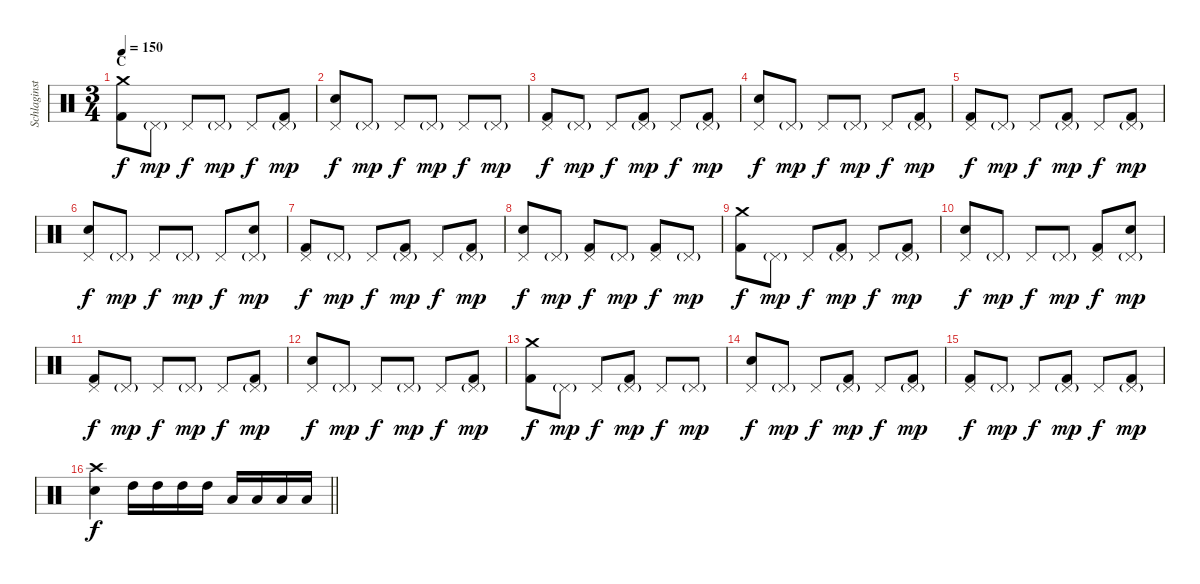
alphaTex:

\track ("Schlaginstrumente - Auswahl" "Schlaginst") {instrument percussion}
\staff {score}
\articulation defaults
\ts (3 4)
\section ("" "C")
\tempo 150
\clef neutral
\ks c
("Crash medium (hit)" "Kick (hit) 2").8{dy f} "Pedal Hi-Hat (hit)"{g}.8{dy mp} "Pedal Hi-Hat (hit)".8{dy f} "Pedal Hi-Hat (hit)"{g}.8{dy mp} "Pedal Hi-Hat (hit)".8{dy f} ("Pedal Hi-Hat (hit)"{g} "Kick (hit) 2").8{dy mp} |
("Pedal Hi-Hat (hit)" "Electric Snare (hit)").8{dy f} "Pedal Hi-Hat (hit)"{g}.8{dy mp} "Pedal Hi-Hat (hit)".8{dy f} "Pedal Hi-Hat (hit)"{g}.8{dy mp} "Pedal Hi-Hat (hit)".8{dy f} "Pedal Hi-Hat (hit)"{g}.8{dy mp} |
("Pedal Hi-Hat (hit)" "Kick (hit) 2").8{dy f} "Pedal Hi-Hat (hit)"{g}.8{dy mp} "Pedal Hi-Hat (hit)".8{dy f} ("Pedal Hi-Hat (hit)"{g} "Kick (hit) 2").8{dy mp} "Pedal Hi-Hat (hit)".8{dy f} ("Pedal Hi-Hat (hit)"{g} "Kick (hit) 2").8{dy mp} |
("Pedal Hi-Hat (hit)" "Electric Snare (hit)").8{dy f} "Pedal Hi-Hat (hit)"{g}.8{dy mp} "Pedal Hi-Hat (hit)".8{dy f} "Pedal Hi-Hat (hit)"{g}.8{dy mp} "Pedal Hi-Hat (hit)".8{dy f} ("Pedal Hi-Hat (hit)"{g} "Kick (hit) 2").8{dy mp} |
("Pedal Hi-Hat (hit)" "Kick (hit) 2").8{dy f} "Pedal Hi-Hat (hit)"{g}.8{dy mp} "Pedal Hi-Hat (hit)".8{dy f} ("Pedal Hi-Hat (hit)"{g} "Kick (hit) 2").8{dy mp} "Pedal Hi-Hat (hit)".8{dy f} ("Pedal Hi-Hat (hit)"{g} "Kick (hit) 2").8{dy mp} |
("Pedal Hi-Hat (hit)" "Electric Snare (hit)").8{dy f} "Pedal Hi-Hat (hit)"{g}.8{dy mp} "Pedal Hi-Hat (hit)".8{dy f} "Pedal Hi-Hat (hit)"{g}.8{dy mp} "Pedal Hi-Hat (hit)".8{dy f} ("Pedal Hi-Hat (hit)"{g} "Electric Snare (hit)").8{dy mp} |
("Pedal Hi-Hat (hit)" "Kick (hit) 2").8{dy f} "Pedal Hi-Hat (hit)"{g}.8{dy mp} "Pedal Hi-Hat (hit)".8{dy f} ("Pedal Hi-Hat (hit)"{g} "Kick (hit) 2").8{dy mp} "Pedal Hi-Hat (hit)".8{dy f} ("Pedal Hi-Hat (hit)"{g} "Kick (hit) 2").8{dy mp} |
("Pedal Hi-Hat (hit)" "Electric Snare (hit)").8{dy f} "Pedal Hi-Hat (hit)"{g}.8{dy mp} ("Pedal Hi-Hat (hit)" "Kick (hit) 2").8{dy f} "Pedal Hi-Hat (hit)"{g}.8{dy mp} ("Pedal Hi-Hat (hit)" "Kick (hit) 2").8{dy f} "Pedal Hi-Hat (hit)"{g}.8{dy mp} |
("Crash medium (hit)" "Kick (hit) 2").8{dy f} "Pedal Hi-Hat (hit)"{g}.8{dy mp} "Pedal Hi-Hat (hit)".8{dy f} ("Pedal Hi-Hat (hit)"{g} "Kick (hit) 2").8{dy mp} "Pedal Hi-Hat (hit)".8{dy f} ("Pedal Hi-Hat (hit)"{g} "Kick (hit) 2").8{dy mp} |
("Pedal Hi-Hat (hit)" "Electric Snare (hit)").8{dy f} "Pedal Hi-Hat (hit)"{g}.8{dy mp} "Pedal Hi-Hat (hit)".8{dy f} "Pedal Hi-Hat (hit)"{g}.8{dy mp} ("Pedal Hi-Hat (hit)" "Kick (hit) 2").8{dy f} ("Pedal Hi-Hat (hit)"{g} "Electric Snare (hit)").8{dy mp} |
("Pedal Hi-Hat (hit)" "Kick (hit) 2").8{dy f} "Pedal Hi-Hat (hit)"{g}.8{dy mp} "Pedal Hi-Hat (hit)".8{dy f} "Pedal Hi-Hat (hit)"{g}.8{dy mp} "Pedal Hi-Hat (hit)".8{dy f} ("Pedal Hi-Hat (hit)"{g} "Kick (hit) 2").8{dy mp} |
("Pedal Hi-Hat (hit)" "Electric Snare (hit)").8{dy f} "Pedal Hi-Hat (hit)"{g}.8{dy mp} "Pedal Hi-Hat (hit)".8{dy f} "Pedal Hi-Hat (hit)"{g}.8{dy mp} "Pedal Hi-Hat (hit)".8{dy f} ("Pedal Hi-Hat (hit)"{g} "Kick (hit) 2").8{dy mp} |
("Crash medium (hit)" "Kick (hit) 2").8{dy f} "Pedal Hi-Hat (hit)"{g}.8{dy mp} "Pedal Hi-Hat (hit)".8{dy f} ("Pedal Hi-Hat (hit)"{g} "Kick (hit) 2").8{dy mp} "Pedal Hi-Hat (hit)".8{dy f} "Pedal Hi-Hat (hit)"{g}.8{dy mp} |
("Pedal Hi-Hat (hit)" "Electric Snare (hit)").8{dy f} "Pedal Hi-Hat (hit)"{g}.8{dy mp} "Pedal Hi-Hat (hit)".8{dy f} ("Pedal Hi-Hat (hit)"{g} "Kick (hit) 2").8{dy mp} "Pedal Hi-Hat (hit)".8{dy f} ("Pedal Hi-Hat (hit)"{g} "Kick (hit) 2").8{dy mp} |
("Pedal Hi-Hat (hit)" "Kick (hit) 2").8{dy f} "Pedal Hi-Hat (hit)"{g}.8{dy mp} "Pedal Hi-Hat (hit)".8{dy f} ("Pedal Hi-Hat (hit)"{g} "Kick (hit) 2").8{dy mp} "Pedal Hi-Hat (hit)".8{dy f} ("Pedal Hi-Hat (hit)"{g} "Kick (hit) 2").8{dy mp} |
\barLineRight lightlight
("Crash high (hit)" "Electric Snare (hit)").4{dy f} "High Tom (hit)".16 "High Tom (hit)".16 "High Tom (hit)".16 "High Tom (hit)".16 "Low Tom (hit)".16 "Low Tom (hit)".16 "Low Tom (hit)".16 "Low Tom (hit)".16
